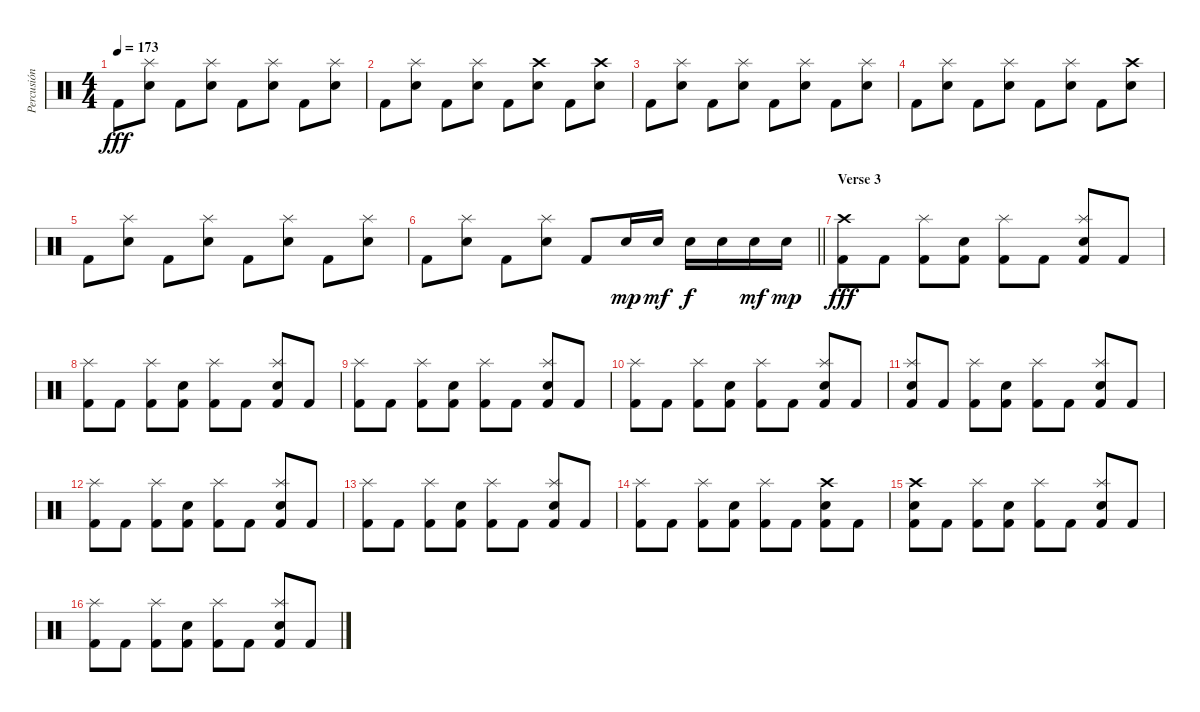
\track ("Percusión" "Percusión") {instrument percussion}
\staff {score}
\articulation defaults
\ts (4 4)
\tempo 173
\clef neutral
\ks c "Kick (hit) 2".8{dy fff}
("Splash (hit)" "Electric Snare (hit)").8 "Kick (hit) 2".8 ("Splash (hit)" "Electric Snare (hit)").8 "Kick (hit) 2".8 ("Splash (hit)" "Electric Snare (hit)").8 "Kick (hit) 2".8 ("Splash (hit)" "Electric Snare (hit)").8 |
"Kick (hit) 2".8 ("Splash (hit)" "Electric Snare (hit)").8 "Kick (hit) 2".8 ("Splash (hit)" "Electric Snare (hit)").8 "Kick (hit) 2".8 ("Crash high (hit)" "Electric Snare (hit)").8 "Kick (hit) 2".8 ("Crash high (hit)" "Electric Snare (hit)").8 |
"Kick (hit) 2".8 ("Splash (hit)" "Electric Snare (hit)").8 "Kick (hit) 2".8 ("Splash (hit)" "Electric Snare (hit)").8 "Kick (hit) 2".8 ("Splash (hit)" "Electric Snare (hit)").8 "Kick (hit) 2".8 ("Splash (hit)" "Electric Snare (hit)").8 |
"Kick (hit) 2".8 ("Splash (hit)" "Electric Snare (hit)").8 "Kick (hit) 2".8 ("Splash (hit)" "Electric Snare (hit)").8 "Kick (hit) 2".8 ("Splash (hit)" "Electric Snare (hit)").8 "Kick (hit) 2".8 ("Crash high (hit)" "Electric Snare (hit)").8 |
"Kick (hit) 2".8 ("Splash (hit)" "Electric Snare (hit)").8 "Kick (hit) 2".8 ("Splash (hit)" "Electric Snare (hit)").8 "Kick (hit) 2".8 ("Splash (hit)" "Electric Snare (hit)").8 "Kick (hit) 2".8 ("Splash (hit)" "Electric Snare (hit)").8 |
\barLineRight lightlight "Kick (hit) 2".8
("Splash (hit)" "Electric Snare (hit)").8 "Kick (hit) 2".8 ("Splash (hit)" "Electric Snare (hit)").8 "Kick (hit) 2".8 "Electric Snare (hit)".16{dy mp} "Electric Snare (hit)".16{dy mf} "Electric Snare (hit)".16{dy f} "Electric Snare (hit)".16 "Electric Snare (hit)".16{dy mf} "Electric Snare (hit)".16{dy mp} |
\section ("" "Verse 3")
("Crash high (hit)" "Kick (hit) 2").8{dy fff} "Kick (hit) 2".8 ("Splash (hit)" "Kick (hit) 2").8 ("Electric Snare (hit)" "Kick (hit) 2").8 ("Splash (hit)" "Kick (hit) 2").8 "Kick (hit) 2".8 ("Splash (hit)" "Electric Snare (hit)" "Kick (hit) 2").8 "Kick (hit) 2".8 |
("Splash (hit)" "Kick (hit) 2").8 "Kick (hit) 2".8 ("Splash (hit)" "Kick (hit) 2").8 ("Electric Snare (hit)" "Kick (hit) 2").8 ("Splash (hit)" "Kick (hit) 2").8 "Kick (hit) 2".8 ("Splash (hit)" "Electric Snare (hit)" "Kick (hit) 2").8 "Kick (hit) 2".8 |
("Splash (hit)" "Kick (hit) 2").8 "Kick (hit) 2".8 ("Splash (hit)" "Kick (hit) 2").8 ("Electric Snare (hit)" "Kick (hit) 2").8 ("Splash (hit)" "Kick (hit) 2").8 "Kick (hit) 2".8 ("Splash (hit)" "Electric Snare (hit)" "Kick (hit) 2").8 "Kick (hit) 2".8 |
("Splash (hit)" "Kick (hit) 2").8 "Kick (hit) 2".8 ("Splash (hit)" "Kick (hit) 2").8 ("Electric Snare (hit)" "Kick (hit) 2").8 ("Splash (hit)" "Kick (hit) 2").8 "Kick (hit) 2".8 ("Splash (hit)" "Electric Snare (hit)" "Kick (hit) 2").8 "Kick (hit) 2".8 |
("Splash (hit)" "Electric Snare (hit)" "Kick (hit) 2").8 "Kick (hit) 2".8 ("Splash (hit)" "Kick (hit) 2").8 ("Electric Snare (hit)" "Kick (hit) 2").8 ("Splash (hit)" "Kick (hit) 2").8 "Kick (hit) 2".8 ("Splash (hit)" "Electric Snare (hit)" "Kick (hit) 2").8 "Kick (hit) 2".8 |
("Splash (hit)" "Kick (hit) 2").8 "Kick (hit) 2".8 ("Splash (hit)" "Kick (hit) 2").8 ("Electric Snare (hit)" "Kick (hit) 2").8 ("Splash (hit)" "Kick (hit) 2").8 "Kick (hit) 2".8 ("Splash (hit)" "Electric Snare (hit)" "Kick (hit) 2").8 "Kick (hit) 2".8 |
("Splash (hit)" "Kick (hit) 2").8 "Kick (hit) 2".8 ("Splash (hit)" "Kick (hit) 2").8 ("Electric Snare (hit)" "Kick (hit) 2").8 ("Splash (hit)" "Kick (hit) 2").8 "Kick (hit) 2".8 ("Splash (hit)" "Electric Snare (hit)" "Kick (hit) 2").8 "Kick (hit) 2".8 |
("Splash (hit)" "Kick (hit) 2").8 "Kick (hit) 2".8 ("Splash (hit)" "Kick (hit) 2").8 ("Electric Snare (hit)" "Kick (hit) 2").8 ("Splash (hit)" "Kick (hit) 2").8 "Kick (hit) 2".8 ("Crash high (hit)" "Electric Snare (hit)" "Kick (hit) 2").8 "Kick (hit) 2".8 |
("Crash high (hit)" "Electric Snare (hit)" "Kick (hit) 2").8 "Kick (hit) 2".8 ("Splash (hit)" "Kick (hit) 2").8 ("Electric Snare (hit)" "Kick (hit) 2").8 ("Splash (hit)" "Kick (hit) 2").8 "Kick (hit) 2".8 ("Splash (hit)" "Electric Snare (hit)" "Kick (hit) 2").8 "Kick (hit) 2".8 |
("Splash (hit)" "Kick (hit) 2").8 "Kick (hit) 2".8 ("Splash (hit)" "Kick (hit) 2").8 ("Electric Snare (hit)" "Kick (hit) 2").8 ("Splash (hit)" "Kick (hit) 2").8 "Kick (hit) 2".8 ("Splash (hit)" "Electric Snare (hit)" "Kick (hit) 2").8 "Kick (hit) 2".8
